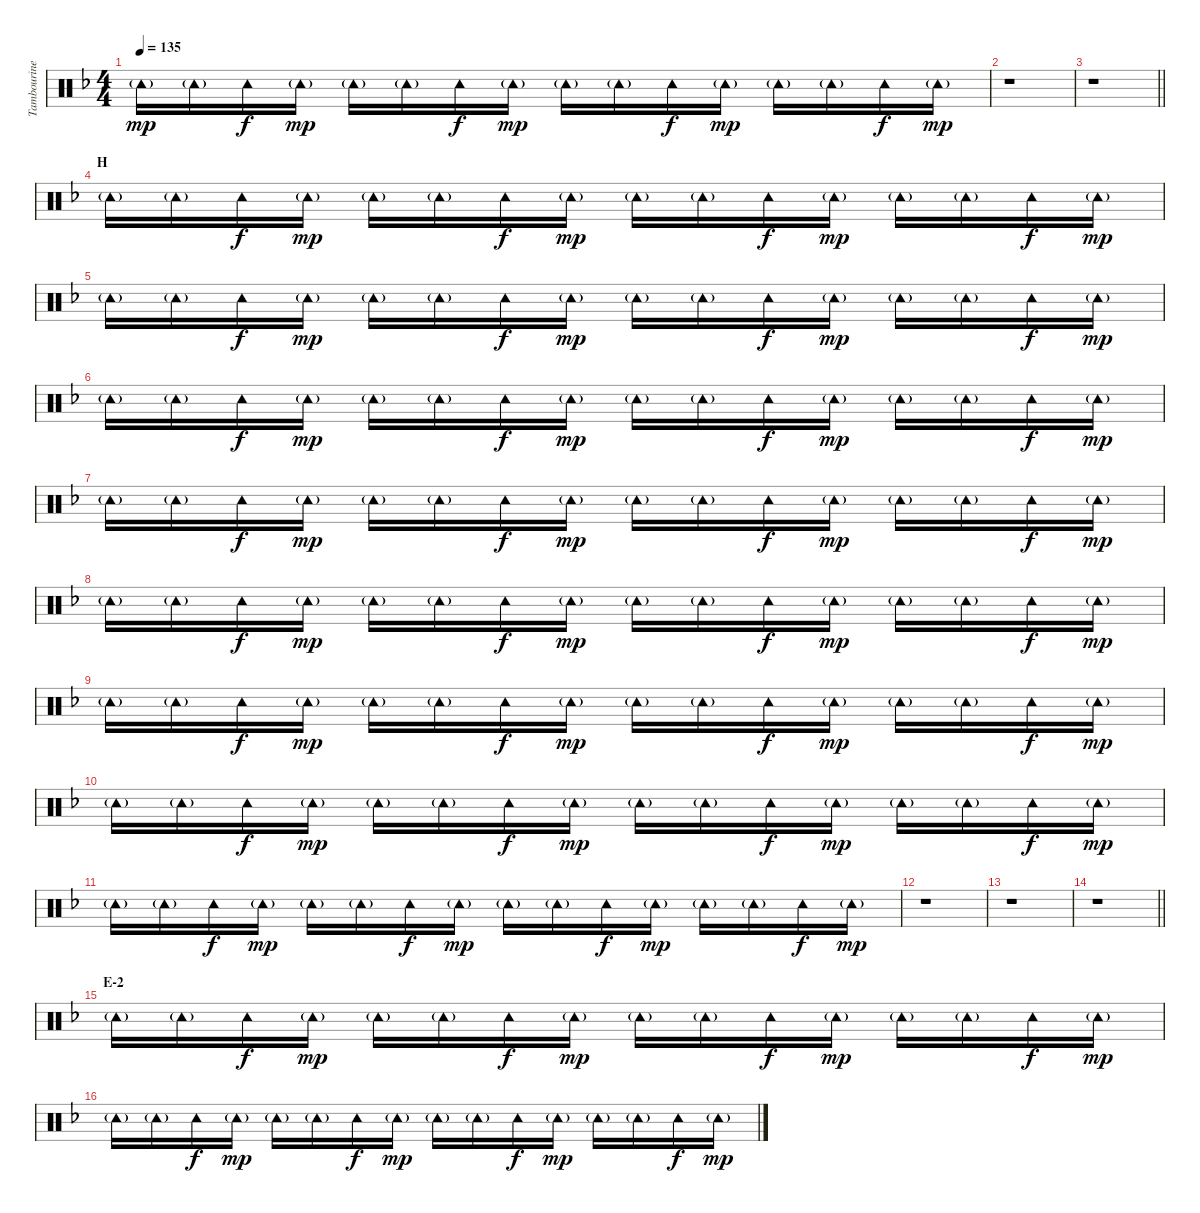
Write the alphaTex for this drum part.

\track ("Tambourine" "Tambourine") {instrument percussion}
\staff {score}
\articulation defaults
\ts (4 4)
\tempo 135
\clef neutral
\ks f "Tambourine (hit)"{g}.16{dy mp} "Tambourine (hit)"{g}.16 "Tambourine (hit)".16{dy f} "Tambourine (hit)"{g}.16{dy mp} "Tambourine (hit)"{g}.16 "Tambourine (hit)"{g}.16 "Tambourine (hit)".16{dy f} "Tambourine (hit)"{g}.16{dy mp} "Tambourine (hit)"{g}.16 "Tambourine (hit)"{g}.16 "Tambourine (hit)".16{dy f} "Tambourine (hit)"{g}.16{dy mp} "Tambourine (hit)"{g}.16 "Tambourine (hit)"{g}.16 "Tambourine (hit)".16{dy f} "Tambourine (hit)"{g}.16{dy mp}
|
r.1 |
\barLineRight lightlight
r.1 |
\section ("" "H")
"Tambourine (hit)"{g}.16 "Tambourine (hit)"{g}.16 "Tambourine (hit)".16{dy f} "Tambourine (hit)"{g}.16{dy mp} "Tambourine (hit)"{g}.16 "Tambourine (hit)"{g}.16 "Tambourine (hit)".16{dy f} "Tambourine (hit)"{g}.16{dy mp} "Tambourine (hit)"{g}.16 "Tambourine (hit)"{g}.16 "Tambourine (hit)".16{dy f} "Tambourine (hit)"{g}.16{dy mp} "Tambourine (hit)"{g}.16 "Tambourine (hit)"{g}.16 "Tambourine (hit)".16{dy f} "Tambourine (hit)"{g}.16{dy mp} |
"Tambourine (hit)"{g}.16 "Tambourine (hit)"{g}.16 "Tambourine (hit)".16{dy f} "Tambourine (hit)"{g}.16{dy mp} "Tambourine (hit)"{g}.16 "Tambourine (hit)"{g}.16 "Tambourine (hit)".16{dy f} "Tambourine (hit)"{g}.16{dy mp} "Tambourine (hit)"{g}.16 "Tambourine (hit)"{g}.16 "Tambourine (hit)".16{dy f} "Tambourine (hit)"{g}.16{dy mp} "Tambourine (hit)"{g}.16 "Tambourine (hit)"{g}.16 "Tambourine (hit)".16{dy f} "Tambourine (hit)"{g}.16{dy mp} |
"Tambourine (hit)"{g}.16 "Tambourine (hit)"{g}.16 "Tambourine (hit)".16{dy f} "Tambourine (hit)"{g}.16{dy mp} "Tambourine (hit)"{g}.16 "Tambourine (hit)"{g}.16 "Tambourine (hit)".16{dy f} "Tambourine (hit)"{g}.16{dy mp} "Tambourine (hit)"{g}.16 "Tambourine (hit)"{g}.16 "Tambourine (hit)".16{dy f} "Tambourine (hit)"{g}.16{dy mp} "Tambourine (hit)"{g}.16 "Tambourine (hit)"{g}.16 "Tambourine (hit)".16{dy f} "Tambourine (hit)"{g}.16{dy mp} |
"Tambourine (hit)"{g}.16 "Tambourine (hit)"{g}.16 "Tambourine (hit)".16{dy f} "Tambourine (hit)"{g}.16{dy mp} "Tambourine (hit)"{g}.16 "Tambourine (hit)"{g}.16 "Tambourine (hit)".16{dy f} "Tambourine (hit)"{g}.16{dy mp} "Tambourine (hit)"{g}.16 "Tambourine (hit)"{g}.16 "Tambourine (hit)".16{dy f} "Tambourine (hit)"{g}.16{dy mp} "Tambourine (hit)"{g}.16 "Tambourine (hit)"{g}.16 "Tambourine (hit)".16{dy f} "Tambourine (hit)"{g}.16{dy mp} |
"Tambourine (hit)"{g}.16 "Tambourine (hit)"{g}.16 "Tambourine (hit)".16{dy f} "Tambourine (hit)"{g}.16{dy mp} "Tambourine (hit)"{g}.16 "Tambourine (hit)"{g}.16 "Tambourine (hit)".16{dy f} "Tambourine (hit)"{g}.16{dy mp} "Tambourine (hit)"{g}.16 "Tambourine (hit)"{g}.16 "Tambourine (hit)".16{dy f} "Tambourine (hit)"{g}.16{dy mp} "Tambourine (hit)"{g}.16 "Tambourine (hit)"{g}.16 "Tambourine (hit)".16{dy f} "Tambourine (hit)"{g}.16{dy mp} |
"Tambourine (hit)"{g}.16 "Tambourine (hit)"{g}.16 "Tambourine (hit)".16{dy f} "Tambourine (hit)"{g}.16{dy mp} "Tambourine (hit)"{g}.16 "Tambourine (hit)"{g}.16 "Tambourine (hit)".16{dy f} "Tambourine (hit)"{g}.16{dy mp} "Tambourine (hit)"{g}.16 "Tambourine (hit)"{g}.16 "Tambourine (hit)".16{dy f} "Tambourine (hit)"{g}.16{dy mp} "Tambourine (hit)"{g}.16 "Tambourine (hit)"{g}.16 "Tambourine (hit)".16{dy f} "Tambourine (hit)"{g}.16{dy mp} |
"Tambourine (hit)"{g}.16 "Tambourine (hit)"{g}.16 "Tambourine (hit)".16{dy f} "Tambourine (hit)"{g}.16{dy mp} "Tambourine (hit)"{g}.16 "Tambourine (hit)"{g}.16 "Tambourine (hit)".16{dy f} "Tambourine (hit)"{g}.16{dy mp} "Tambourine (hit)"{g}.16 "Tambourine (hit)"{g}.16 "Tambourine (hit)".16{dy f} "Tambourine (hit)"{g}.16{dy mp} "Tambourine (hit)"{g}.16 "Tambourine (hit)"{g}.16 "Tambourine (hit)".16{dy f} "Tambourine (hit)"{g}.16{dy mp} |
"Tambourine (hit)"{g}.16 "Tambourine (hit)"{g}.16 "Tambourine (hit)".16{dy f} "Tambourine (hit)"{g}.16{dy mp} "Tambourine (hit)"{g}.16 "Tambourine (hit)"{g}.16 "Tambourine (hit)".16{dy f} "Tambourine (hit)"{g}.16{dy mp} "Tambourine (hit)"{g}.16 "Tambourine (hit)"{g}.16 "Tambourine (hit)".16{dy f} "Tambourine (hit)"{g}.16{dy mp} "Tambourine (hit)"{g}.16 "Tambourine (hit)"{g}.16 "Tambourine (hit)".16{dy f} "Tambourine (hit)"{g}.16{dy mp} |
r.1 |
r.1 |
\barLineRight lightlight
r.1 |
\section ("" "E-2")
"Tambourine (hit)"{g}.16 "Tambourine (hit)"{g}.16 "Tambourine (hit)".16{dy f} "Tambourine (hit)"{g}.16{dy mp} "Tambourine (hit)"{g}.16 "Tambourine (hit)"{g}.16 "Tambourine (hit)".16{dy f} "Tambourine (hit)"{g}.16{dy mp} "Tambourine (hit)"{g}.16 "Tambourine (hit)"{g}.16 "Tambourine (hit)".16{dy f} "Tambourine (hit)"{g}.16{dy mp} "Tambourine (hit)"{g}.16 "Tambourine (hit)"{g}.16 "Tambourine (hit)".16{dy f} "Tambourine (hit)"{g}.16{dy mp} |
"Tambourine (hit)"{g}.16 "Tambourine (hit)"{g}.16 "Tambourine (hit)".16{dy f} "Tambourine (hit)"{g}.16{dy mp} "Tambourine (hit)"{g}.16 "Tambourine (hit)"{g}.16 "Tambourine (hit)".16{dy f} "Tambourine (hit)"{g}.16{dy mp} "Tambourine (hit)"{g}.16 "Tambourine (hit)"{g}.16 "Tambourine (hit)".16{dy f} "Tambourine (hit)"{g}.16{dy mp} "Tambourine (hit)"{g}.16 "Tambourine (hit)"{g}.16 "Tambourine (hit)".16{dy f} "Tambourine (hit)"{g}.16{dy mp}
